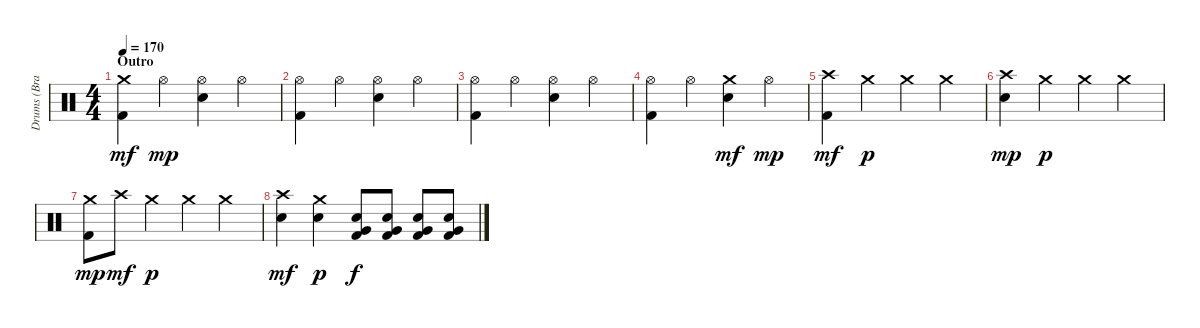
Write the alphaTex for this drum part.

\track ("Drums (Brandon Saller)" "Drums (Bra") {instrument percussion}
\staff {score}
\articulation defaults
\ts (4 4)
\section ("" "Outro")
\tempo 170
\clef neutral
\ks c
("Crash medium (hit)" "Kick (hit) 2").4{dy mf} "Hi-Hat (open)".4{dy mp} ("Hi-Hat (open)" "Electric Snare (hit)").4 "Hi-Hat (open)".4 |
("Hi-Hat (open)" "Kick (hit) 2").4 "Hi-Hat (open)".4 ("Hi-Hat (open)" "Electric Snare (hit)").4 "Hi-Hat (open)".4 |
("Hi-Hat (open)" "Kick (hit) 2").4 "Hi-Hat (open)".4 ("Hi-Hat (open)" "Electric Snare (hit)").4 "Hi-Hat (open)".4 |
("Hi-Hat (open)" "Kick (hit) 2").4 "Hi-Hat (open)".4 ("Crash medium (hit)" "Electric Snare (hit)").4{dy mf} "Hi-Hat (open)".4{dy mp} |
("Crash high (hit)" "Kick (hit) 2").4{dy mf} "Crash medium (hit)".4{dy p} "Crash medium (hit)".4 "Crash medium (hit)".4 |
("Crash high (hit)" "Electric Snare (hit)").4{dy mp} "Crash medium (hit)".4{dy p} "Crash medium (hit)".4 "Crash medium (hit)".4 |
("Crash medium (hit)" "Kick (hit) 2").8{dy mp} "Crash high (hit)".8{dy mf} "Crash medium (hit)".4{dy p} "Crash medium (hit)".4 "Crash medium (hit)".4 |
("Crash high (hit)" "Electric Snare (hit)").4{dy mf} ("Crash medium (hit)" "Electric Snare (hit)").4{dy p} ("Electric Snare (hit)" "Very Low Tom (hit)" "Kick (hit) 2").8{dy f} ("Electric Snare (hit)" "Very Low Tom (hit)" "Kick (hit) 2").8 ("Electric Snare (hit)" "Very Low Tom (hit)" "Kick (hit) 2").8 ("Electric Snare (hit)" "Very Low Tom (hit)" "Kick (hit) 2").8
